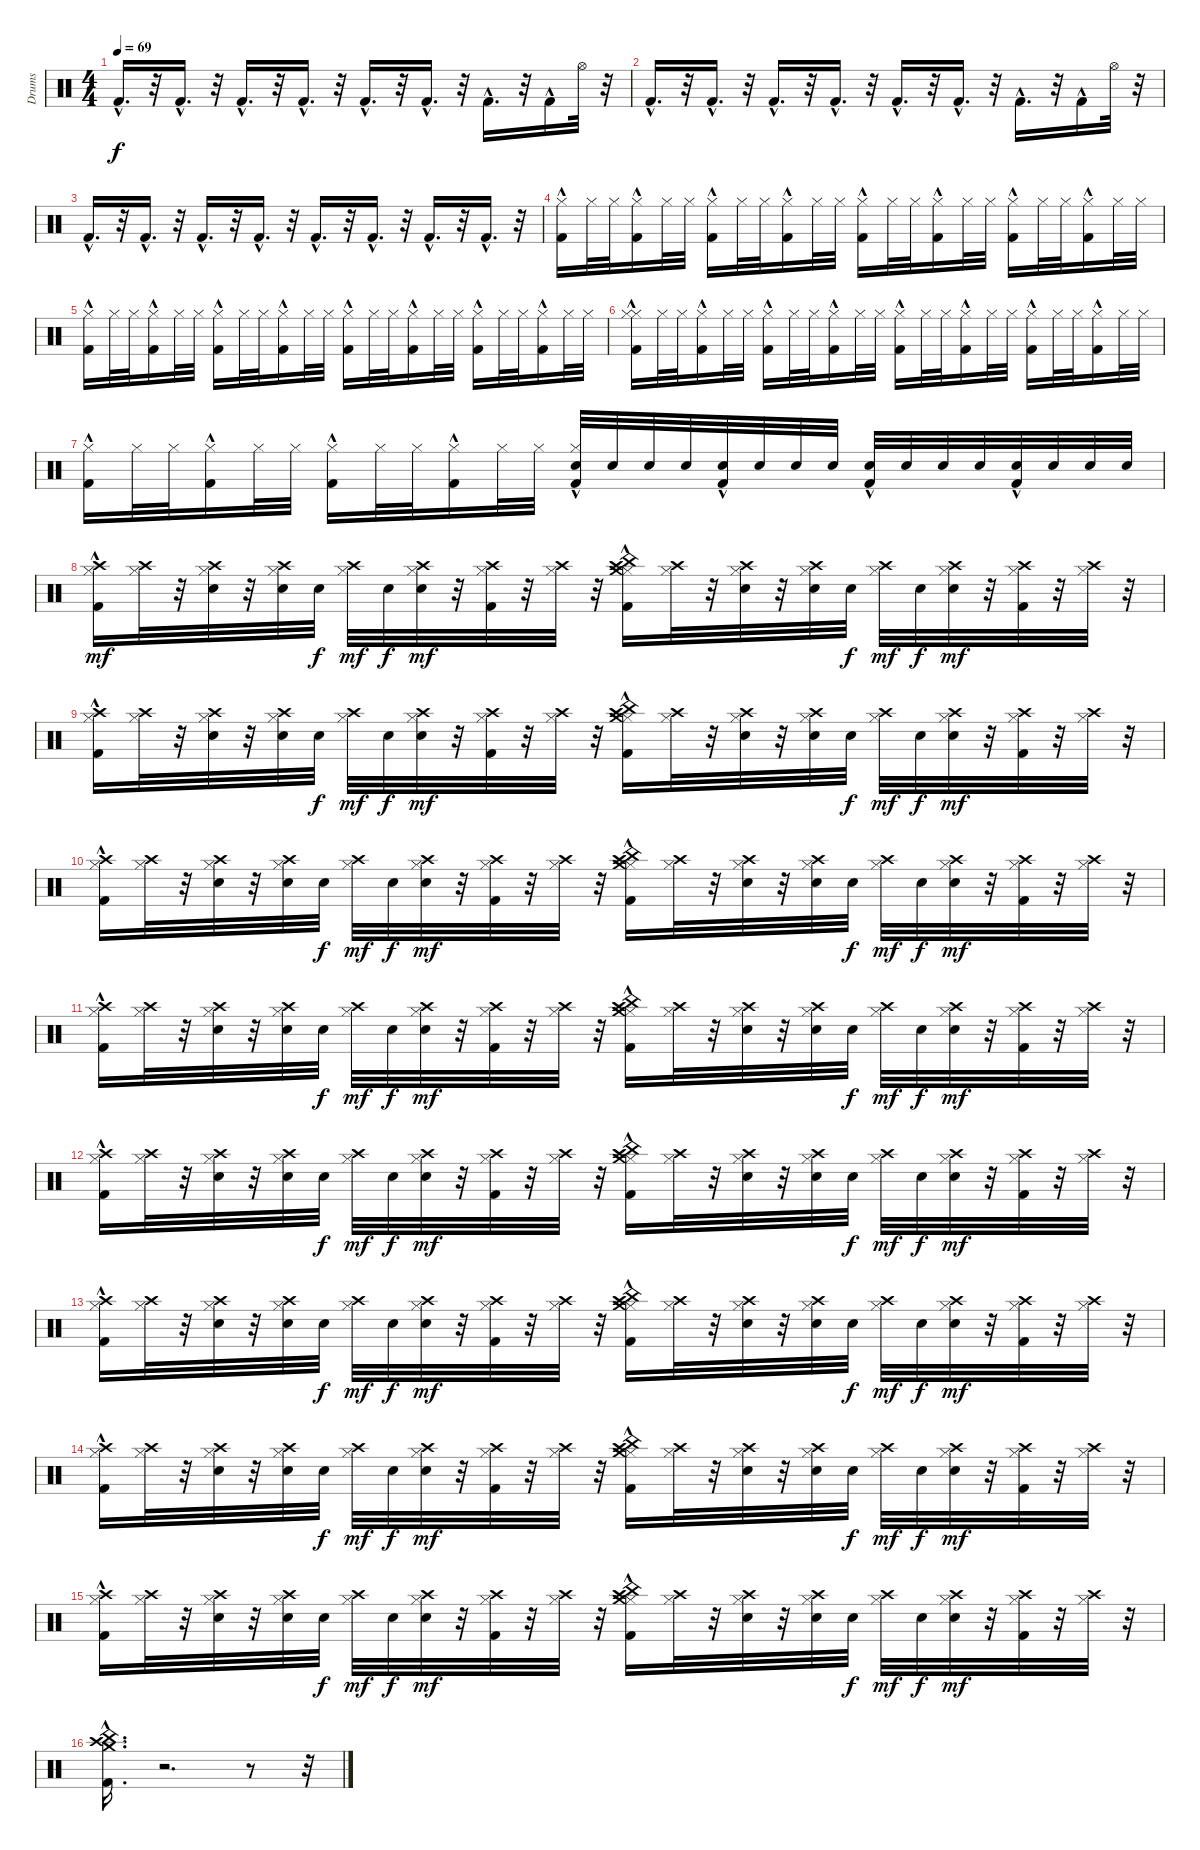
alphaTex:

\track ("Drums" "Drums") {instrument percussion}
\staff {score}
\articulation defaults
\ts (4 4)
\tempo 69
\clef neutral
\ks c "Kick (hit) 2"{hac}.16{d dy f}
r.32 "Kick (hit) 2"{hac}.16{d} r.32 "Kick (hit) 2"{hac}.16{d} r.32 "Kick (hit) 2"{hac}.16{d} r.32 "Kick (hit) 2"{hac}.16{d} r.32 "Kick (hit) 2"{hac}.16{d} r.32 "Kick (hit) 2"{hac}.16{d} r.32 "Kick (hit) 2"{hac}.16 "Hi-Hat (open)".32 r.32 |
"Kick (hit) 2"{hac}.16{d} r.32 "Kick (hit) 2"{hac}.16{d} r.32 "Kick (hit) 2"{hac}.16{d} r.32 "Kick (hit) 2"{hac}.16{d} r.32 "Kick (hit) 2"{hac}.16{d} r.32 "Kick (hit) 2"{hac}.16{d} r.32 "Kick (hit) 2"{hac}.16{d} r.32 "Kick (hit) 2"{hac}.16 "Hi-Hat (open)".32 r.32 |
"Kick (hit) 2"{hac}.16{d} r.32 "Kick (hit) 2"{hac}.16{d} r.32 "Kick (hit) 2"{hac}.16{d} r.32 "Kick (hit) 2"{hac}.16{d} r.32 "Kick (hit) 2"{hac}.16{d} r.32 "Kick (hit) 2"{hac}.16{d} r.32 "Kick (hit) 2"{hac}.16{d} r.32 "Kick (hit) 2"{hac}.16{d} r.32 |
("Hi-Hat (closed)" "Kick (hit) 2"{hac}).16 "Hi-Hat (closed)".32 "Hi-Hat (closed)".32 ("Kick (hit) 2"{hac} "Hi-Hat (closed)").16 "Hi-Hat (closed)".32 "Hi-Hat (closed)".32 ("Hi-Hat (closed)" "Kick (hit) 2"{hac}).16 "Hi-Hat (closed)".32 "Hi-Hat (closed)".32 ("Hi-Hat (closed)" "Kick (hit) 2"{hac}).16 "Hi-Hat (closed)".32 "Hi-Hat (closed)".32 ("Hi-Hat (closed)" "Kick (hit) 2"{hac}).16 "Hi-Hat (closed)".32 "Hi-Hat (closed)".32 ("Hi-Hat (closed)" "Kick (hit) 2"{hac}).16 "Hi-Hat (closed)".32 "Hi-Hat (closed)".32 ("Hi-Hat (closed)" "Kick (hit) 2"{hac}).16 "Hi-Hat (closed)".32 "Hi-Hat (closed)".32 ("Hi-Hat (closed)" "Kick (hit) 2"{hac}).16 "Hi-Hat (closed)".32 "Hi-Hat (closed)".32 |
("Hi-Hat (closed)" "Kick (hit) 2"{hac}).16 "Hi-Hat (closed)".32 "Hi-Hat (closed)".32 ("Hi-Hat (closed)" "Kick (hit) 2"{hac}).16 "Hi-Hat (closed)".32 "Hi-Hat (closed)".32 ("Hi-Hat (closed)" "Kick (hit) 2"{hac}).16 "Hi-Hat (closed)".32 "Hi-Hat (closed)".32 ("Hi-Hat (closed)" "Kick (hit) 2"{hac}).16 "Hi-Hat (closed)".32 "Hi-Hat (closed)".32 ("Hi-Hat (closed)" "Kick (hit) 2"{hac}).16 "Hi-Hat (closed)".32 "Hi-Hat (closed)".32 ("Hi-Hat (closed)" "Kick (hit) 2"{hac}).16 "Hi-Hat (closed)".32 "Hi-Hat (closed)".32 ("Hi-Hat (closed)" "Kick (hit) 2"{hac}).16 "Hi-Hat (closed)".32 "Hi-Hat (closed)".32 ("Hi-Hat (closed)" "Kick (hit) 2"{hac}).16 "Hi-Hat (closed)".32 "Hi-Hat (closed)".32 |
("Hi-Hat (closed)" "Kick (hit) 2"{hac} "Hi-Hat (closed)").16 "Hi-Hat (closed)".32 "Hi-Hat (closed)".32 ("Kick (hit) 2"{hac} "Hi-Hat (closed)").16 "Hi-Hat (closed)".32 "Hi-Hat (closed)".32 ("Hi-Hat (closed)" "Kick (hit) 2"{hac}).16 "Hi-Hat (closed)".32 "Hi-Hat (closed)".32 ("Hi-Hat (closed)" "Kick (hit) 2"{hac}).16 "Hi-Hat (closed)".32 "Hi-Hat (closed)".32 ("Hi-Hat (closed)" "Kick (hit) 2"{hac}).16 "Hi-Hat (closed)".32 "Hi-Hat (closed)".32 ("Hi-Hat (closed)" "Kick (hit) 2"{hac}).16 "Hi-Hat (closed)".32 "Hi-Hat (closed)".32 ("Hi-Hat (closed)" "Kick (hit) 2"{hac}).16 "Hi-Hat (closed)".32 "Hi-Hat (closed)".32 ("Hi-Hat (closed)" "Kick (hit) 2"{hac}).16 "Hi-Hat (closed)".32 "Hi-Hat (closed)".32 |
("Hi-Hat (closed)" "Kick (hit) 2"{hac}).16 "Hi-Hat (closed)".32 "Hi-Hat (closed)".32 ("Hi-Hat (closed)" "Kick (hit) 2"{hac}).16 "Hi-Hat (closed)".32 "Hi-Hat (closed)".32 ("Hi-Hat (closed)" "Kick (hit) 2"{hac}).16 "Hi-Hat (closed)".32 "Hi-Hat (closed)".32 ("Hi-Hat (closed)" "Kick (hit) 2"{hac}).16 "Hi-Hat (closed)".32 "Hi-Hat (closed)".32 ("Snare (hit) 2" "Hi-Hat (closed)" "Kick (hit) 2"{hac}).32 "Snare (hit) 2".32 "Snare (hit) 2".32 "Snare (hit) 2".32 ("Kick (hit) 2"{hac} "Snare (hit) 2").32 "Snare (hit) 2".32 "Snare (hit) 2".32 "Snare (hit) 2".32 ("Snare (hit) 2" "Kick (hit) 2"{hac}).32 "Snare (hit) 2".32 "Snare (hit) 2".32 "Snare (hit) 2".32 ("Snare (hit) 2" "Kick (hit) 2"{hac}).32 "Snare (hit) 2".32 "Snare (hit) 2".32 "Snare (hit) 2".32 |
("Hi-Hat (closed)" "Crash high (hit)" "Kick (hit) 2"{hac}).16{dy mf} ("Hi-Hat (closed)" "Crash high (hit)").32 r.32 ("Hi-Hat (closed)" "Crash high (hit)" "Snare (hit) 2").32 r.32 ("Hi-Hat (closed)" "Crash high (hit)" "Snare (hit) 2").32 "Snare (hit) 2".32{dy f} ("Hi-Hat (closed)" "Crash high (hit)").32{dy mf} "Snare (hit) 2".32{dy f} ("Hi-Hat (closed)" "Crash high (hit)" "Snare (hit) 2").32{dy mf} r.32 ("Hi-Hat (closed)" "Crash high (hit)" "Kick (hit) 2").32 r.32 ("Hi-Hat (closed)" "Crash high (hit)").32 r.32 ("Hi-Hat (closed)" "Crash high (hit)" "China (hit)" "Crash medium (hit)" "Kick (hit) 2"{hac}).16 ("Hi-Hat (closed)" "Crash high (hit)").32 r.32 ("Hi-Hat (closed)" "Crash high (hit)" "Snare (hit) 2").32 r.32 ("Hi-Hat (closed)" "Crash high (hit)" "Snare (hit) 2").32 "Snare (hit) 2".32{dy f} ("Hi-Hat (closed)" "Crash high (hit)").32{dy mf} "Snare (hit) 2".32{dy f} ("Hi-Hat (closed)" "Crash high (hit)" "Snare (hit) 2").32{dy mf} r.32 ("Hi-Hat (closed)" "Crash high (hit)" "Kick (hit) 2").32 r.32 ("Hi-Hat (closed)" "Crash high (hit)").32 r.32 |
("Hi-Hat (closed)" "Crash high (hit)" "Kick (hit) 2"{hac}).16 ("Hi-Hat (closed)" "Crash high (hit)").32 r.32 ("Hi-Hat (closed)" "Crash high (hit)" "Snare (hit) 2").32 r.32 ("Hi-Hat (closed)" "Crash high (hit)" "Snare (hit) 2").32 "Snare (hit) 2".32{dy f} ("Hi-Hat (closed)" "Crash high (hit)").32{dy mf} "Snare (hit) 2".32{dy f} ("Hi-Hat (closed)" "Crash high (hit)" "Snare (hit) 2").32{dy mf} r.32 ("Hi-Hat (closed)" "Crash high (hit)" "Kick (hit) 2").32 r.32 ("Hi-Hat (closed)" "Crash high (hit)").32 r.32 ("Hi-Hat (closed)" "Crash high (hit)" "China (hit)" "Crash medium (hit)" "Kick (hit) 2"{hac}).16 ("Hi-Hat (closed)" "Crash high (hit)").32 r.32 ("Hi-Hat (closed)" "Crash high (hit)" "Snare (hit) 2").32 r.32 ("Hi-Hat (closed)" "Crash high (hit)" "Snare (hit) 2").32 "Snare (hit) 2".32{dy f} ("Hi-Hat (closed)" "Crash high (hit)").32{dy mf} "Snare (hit) 2".32{dy f} ("Hi-Hat (closed)" "Crash high (hit)" "Snare (hit) 2").32{dy mf} r.32 ("Hi-Hat (closed)" "Crash high (hit)" "Kick (hit) 2").32 r.32 ("Hi-Hat (closed)" "Crash high (hit)").32 r.32 |
("Hi-Hat (closed)" "Crash high (hit)" "Kick (hit) 2"{hac}).16 ("Hi-Hat (closed)" "Crash high (hit)").32 r.32 ("Hi-Hat (closed)" "Crash high (hit)" "Snare (hit) 2").32 r.32 ("Hi-Hat (closed)" "Crash high (hit)" "Snare (hit) 2").32 "Snare (hit) 2".32{dy f} ("Hi-Hat (closed)" "Crash high (hit)").32{dy mf} "Snare (hit) 2".32{dy f} ("Hi-Hat (closed)" "Crash high (hit)" "Snare (hit) 2").32{dy mf} r.32 ("Hi-Hat (closed)" "Crash high (hit)" "Kick (hit) 2").32 r.32 ("Hi-Hat (closed)" "Crash high (hit)").32 r.32 ("Hi-Hat (closed)" "Crash high (hit)" "China (hit)" "Crash medium (hit)" "Kick (hit) 2"{hac}).16 ("Hi-Hat (closed)" "Crash high (hit)").32 r.32 ("Hi-Hat (closed)" "Crash high (hit)" "Snare (hit) 2").32 r.32 ("Hi-Hat (closed)" "Crash high (hit)" "Snare (hit) 2").32 "Snare (hit) 2".32{dy f} ("Hi-Hat (closed)" "Crash high (hit)").32{dy mf} "Snare (hit) 2".32{dy f} ("Hi-Hat (closed)" "Crash high (hit)" "Snare (hit) 2").32{dy mf} r.32 ("Hi-Hat (closed)" "Crash high (hit)" "Kick (hit) 2").32 r.32 ("Hi-Hat (closed)" "Crash high (hit)").32 r.32 |
("Hi-Hat (closed)" "Crash high (hit)" "Kick (hit) 2"{hac}).16 ("Hi-Hat (closed)" "Crash high (hit)").32 r.32 ("Hi-Hat (closed)" "Crash high (hit)" "Snare (hit) 2").32 r.32 ("Hi-Hat (closed)" "Crash high (hit)" "Snare (hit) 2").32 "Snare (hit) 2".32{dy f} ("Hi-Hat (closed)" "Crash high (hit)").32{dy mf} "Snare (hit) 2".32{dy f} ("Hi-Hat (closed)" "Crash high (hit)" "Snare (hit) 2").32{dy mf} r.32 ("Hi-Hat (closed)" "Crash high (hit)" "Kick (hit) 2").32 r.32 ("Hi-Hat (closed)" "Crash high (hit)").32 r.32 ("Hi-Hat (closed)" "Crash high (hit)" "China (hit)" "Crash medium (hit)" "Kick (hit) 2"{hac}).16 ("Hi-Hat (closed)" "Crash high (hit)").32 r.32 ("Hi-Hat (closed)" "Crash high (hit)" "Snare (hit) 2").32 r.32 ("Hi-Hat (closed)" "Crash high (hit)" "Snare (hit) 2").32 "Snare (hit) 2".32{dy f} ("Hi-Hat (closed)" "Crash high (hit)").32{dy mf} "Snare (hit) 2".32{dy f} ("Hi-Hat (closed)" "Crash high (hit)" "Snare (hit) 2").32{dy mf} r.32 ("Hi-Hat (closed)" "Crash high (hit)" "Kick (hit) 2").32 r.32 ("Hi-Hat (closed)" "Crash high (hit)").32 r.32 |
("Hi-Hat (closed)" "Crash high (hit)" "Kick (hit) 2"{hac}).16 ("Hi-Hat (closed)" "Crash high (hit)").32 r.32 ("Hi-Hat (closed)" "Crash high (hit)" "Snare (hit) 2").32 r.32 ("Hi-Hat (closed)" "Crash high (hit)" "Snare (hit) 2").32 "Snare (hit) 2".32{dy f} ("Hi-Hat (closed)" "Crash high (hit)").32{dy mf} "Snare (hit) 2".32{dy f} ("Hi-Hat (closed)" "Crash high (hit)" "Snare (hit) 2").32{dy mf} r.32 ("Hi-Hat (closed)" "Crash high (hit)" "Kick (hit) 2").32 r.32 ("Hi-Hat (closed)" "Crash high (hit)").32 r.32 ("Hi-Hat (closed)" "Crash high (hit)" "China (hit)" "Crash medium (hit)" "Kick (hit) 2"{hac}).16 ("Hi-Hat (closed)" "Crash high (hit)").32 r.32 ("Hi-Hat (closed)" "Crash high (hit)" "Snare (hit) 2").32 r.32 ("Hi-Hat (closed)" "Crash high (hit)" "Snare (hit) 2").32 "Snare (hit) 2".32{dy f} ("Hi-Hat (closed)" "Crash high (hit)").32{dy mf} "Snare (hit) 2".32{dy f} ("Hi-Hat (closed)" "Crash high (hit)" "Snare (hit) 2").32{dy mf} r.32 ("Hi-Hat (closed)" "Crash high (hit)" "Kick (hit) 2").32 r.32 ("Hi-Hat (closed)" "Crash high (hit)").32 r.32 |
("Hi-Hat (closed)" "Crash high (hit)" "Kick (hit) 2"{hac}).16 ("Hi-Hat (closed)" "Crash high (hit)").32 r.32 ("Hi-Hat (closed)" "Crash high (hit)" "Snare (hit) 2").32 r.32 ("Hi-Hat (closed)" "Crash high (hit)" "Snare (hit) 2").32 "Snare (hit) 2".32{dy f} ("Hi-Hat (closed)" "Crash high (hit)").32{dy mf} "Snare (hit) 2".32{dy f} ("Hi-Hat (closed)" "Crash high (hit)" "Snare (hit) 2").32{dy mf} r.32 ("Hi-Hat (closed)" "Crash high (hit)" "Kick (hit) 2").32 r.32 ("Hi-Hat (closed)" "Crash high (hit)").32 r.32 ("Hi-Hat (closed)" "Crash high (hit)" "China (hit)" "Crash medium (hit)" "Kick (hit) 2"{hac}).16 ("Hi-Hat (closed)" "Crash high (hit)").32 r.32 ("Hi-Hat (closed)" "Crash high (hit)" "Snare (hit) 2").32 r.32 ("Hi-Hat (closed)" "Crash high (hit)" "Snare (hit) 2").32 "Snare (hit) 2".32{dy f} ("Hi-Hat (closed)" "Crash high (hit)").32{dy mf} "Snare (hit) 2".32{dy f} ("Hi-Hat (closed)" "Crash high (hit)" "Snare (hit) 2").32{dy mf} r.32 ("Hi-Hat (closed)" "Crash high (hit)" "Kick (hit) 2").32 r.32 ("Hi-Hat (closed)" "Crash high (hit)").32 r.32 |
("Hi-Hat (closed)" "Crash high (hit)" "Kick (hit) 2"{hac}).16 ("Hi-Hat (closed)" "Crash high (hit)").32 r.32 ("Hi-Hat (closed)" "Crash high (hit)" "Snare (hit) 2").32 r.32 ("Hi-Hat (closed)" "Crash high (hit)" "Snare (hit) 2").32 "Snare (hit) 2".32{dy f} ("Hi-Hat (closed)" "Crash high (hit)").32{dy mf} "Snare (hit) 2".32{dy f} ("Hi-Hat (closed)" "Crash high (hit)" "Snare (hit) 2").32{dy mf} r.32 ("Hi-Hat (closed)" "Crash high (hit)" "Kick (hit) 2").32 r.32 ("Hi-Hat (closed)" "Crash high (hit)").32 r.32 ("Hi-Hat (closed)" "Crash high (hit)" "China (hit)" "Crash medium (hit)" "Kick (hit) 2"{hac}).16 ("Hi-Hat (closed)" "Crash high (hit)").32 r.32 ("Hi-Hat (closed)" "Crash high (hit)" "Snare (hit) 2").32 r.32 ("Hi-Hat (closed)" "Crash high (hit)" "Snare (hit) 2").32 "Snare (hit) 2".32{dy f} ("Hi-Hat (closed)" "Crash high (hit)").32{dy mf} "Snare (hit) 2".32{dy f} ("Hi-Hat (closed)" "Crash high (hit)" "Snare (hit) 2").32{dy mf} r.32 ("Hi-Hat (closed)" "Crash high (hit)" "Kick (hit) 2").32 r.32 ("Hi-Hat (closed)" "Crash high (hit)").32 r.32 |
("Hi-Hat (closed)" "Crash high (hit)" "Kick (hit) 2"{hac}).16 ("Hi-Hat (closed)" "Crash high (hit)").32 r.32 ("Hi-Hat (closed)" "Crash high (hit)" "Snare (hit) 2").32 r.32 ("Hi-Hat (closed)" "Crash high (hit)" "Snare (hit) 2").32 "Snare (hit) 2".32{dy f} ("Hi-Hat (closed)" "Crash high (hit)").32{dy mf} "Snare (hit) 2".32{dy f} ("Hi-Hat (closed)" "Crash high (hit)" "Snare (hit) 2").32{dy mf} r.32 ("Hi-Hat (closed)" "Crash high (hit)" "Kick (hit) 2").32 r.32 ("Hi-Hat (closed)" "Crash high (hit)").32 r.32 ("Hi-Hat (closed)" "Crash high (hit)" "China (hit)" "Crash medium (hit)" "Kick (hit) 2"{hac}).16 ("Hi-Hat (closed)" "Crash high (hit)").32 r.32 ("Hi-Hat (closed)" "Crash high (hit)" "Snare (hit) 2").32 r.32 ("Hi-Hat (closed)" "Crash high (hit)" "Snare (hit) 2").32 "Snare (hit) 2".32{dy f} ("Hi-Hat (closed)" "Crash high (hit)").32{dy mf} "Snare (hit) 2".32{dy f} ("Hi-Hat (closed)" "Crash high (hit)" "Snare (hit) 2").32{dy mf} r.32 ("Hi-Hat (closed)" "Crash high (hit)" "Kick (hit) 2").32 r.32 ("Hi-Hat (closed)" "Crash high (hit)").32 r.32 |
("Crash high (hit)" "China (hit)" "Crash medium (hit)" "Kick (hit) 2"{hac}).16{d} r.2{d} r.8 r.32
